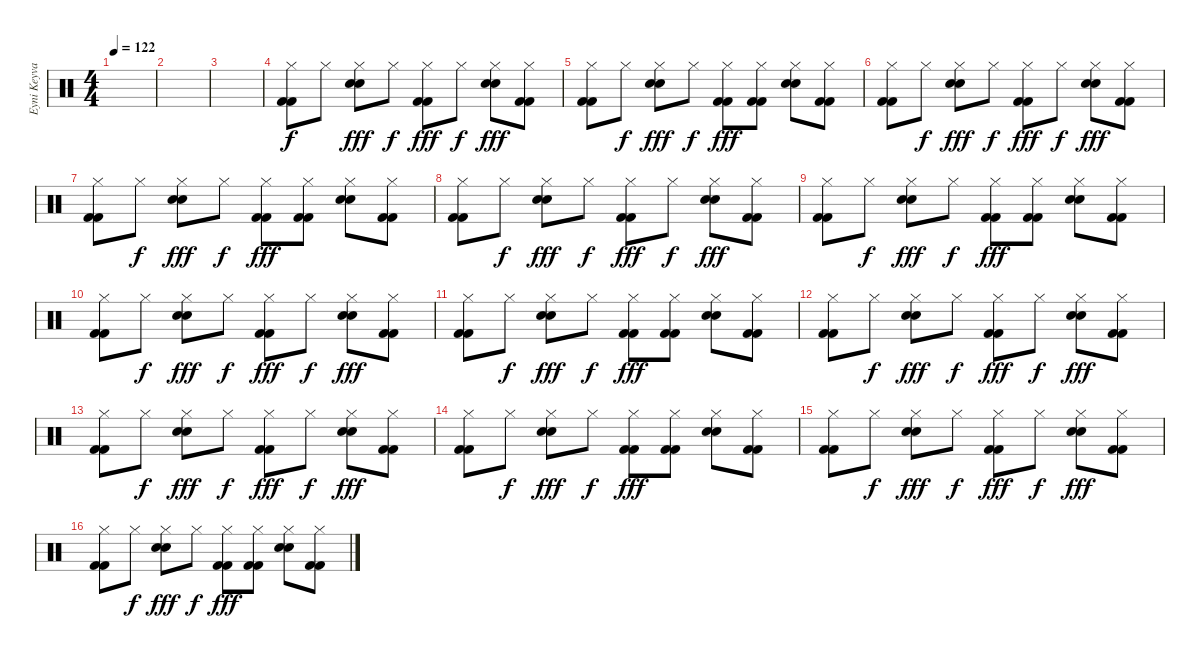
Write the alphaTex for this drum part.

\track ("Eyni Keyvanshokoh" "Eyni Keyva") {instrument percussion}
\staff {score}
\articulation defaults
\ts (4 4)
\tempo 122
\clef neutral
\ks c
|
|
|
("Hi-Hat (closed)" "Kick (hit) 2" "Kick (hit) 2").8 "Hi-Hat (closed)".8{dy f} ("Hi-Hat (closed)" "Electric Snare (hit)" "Electric Snare (hit)").8{dy fff} "Hi-Hat (closed)".8{dy f} ("Hi-Hat (closed)" "Kick (hit) 2" "Kick (hit) 2").8{dy fff} "Hi-Hat (closed)".8{dy f} ("Hi-Hat (closed)" "Electric Snare (hit)" "Electric Snare (hit)").8{dy fff} ("Hi-Hat (closed)" "Kick (hit) 2" "Kick (hit) 2").8 |
("Hi-Hat (closed)" "Kick (hit) 2" "Kick (hit) 2").8 "Hi-Hat (closed)".8{dy f} ("Hi-Hat (closed)" "Electric Snare (hit)" "Electric Snare (hit)").8{dy fff} "Hi-Hat (closed)".8{dy f} ("Hi-Hat (closed)" "Kick (hit) 2" "Kick (hit) 2").8{dy fff} ("Hi-Hat (closed)" "Kick (hit) 2" "Kick (hit) 2").8 ("Hi-Hat (closed)" "Electric Snare (hit)" "Electric Snare (hit)").8 ("Hi-Hat (closed)" "Kick (hit) 2" "Kick (hit) 2").8 |
("Hi-Hat (closed)" "Kick (hit) 2" "Kick (hit) 2").8 "Hi-Hat (closed)".8{dy f} ("Hi-Hat (closed)" "Electric Snare (hit)" "Electric Snare (hit)").8{dy fff} "Hi-Hat (closed)".8{dy f} ("Hi-Hat (closed)" "Kick (hit) 2" "Kick (hit) 2").8{dy fff} "Hi-Hat (closed)".8{dy f} ("Hi-Hat (closed)" "Electric Snare (hit)" "Electric Snare (hit)").8{dy fff} ("Hi-Hat (closed)" "Kick (hit) 2" "Kick (hit) 2").8 |
("Hi-Hat (closed)" "Kick (hit) 2" "Kick (hit) 2").8 "Hi-Hat (closed)".8{dy f} ("Hi-Hat (closed)" "Electric Snare (hit)" "Electric Snare (hit)").8{dy fff} "Hi-Hat (closed)".8{dy f} ("Hi-Hat (closed)" "Kick (hit) 2" "Kick (hit) 2").8{dy fff} ("Hi-Hat (closed)" "Kick (hit) 2" "Kick (hit) 2").8 ("Hi-Hat (closed)" "Electric Snare (hit)" "Electric Snare (hit)").8 ("Hi-Hat (closed)" "Kick (hit) 2" "Kick (hit) 2").8 |
("Hi-Hat (closed)" "Kick (hit) 2" "Kick (hit) 2").8 "Hi-Hat (closed)".8{dy f} ("Hi-Hat (closed)" "Electric Snare (hit)" "Electric Snare (hit)").8{dy fff} "Hi-Hat (closed)".8{dy f} ("Hi-Hat (closed)" "Kick (hit) 2" "Kick (hit) 2").8{dy fff} "Hi-Hat (closed)".8{dy f} ("Hi-Hat (closed)" "Electric Snare (hit)" "Electric Snare (hit)").8{dy fff} ("Hi-Hat (closed)" "Kick (hit) 2" "Kick (hit) 2").8 |
("Hi-Hat (closed)" "Kick (hit) 2" "Kick (hit) 2").8 "Hi-Hat (closed)".8{dy f} ("Hi-Hat (closed)" "Electric Snare (hit)" "Electric Snare (hit)").8{dy fff} "Hi-Hat (closed)".8{dy f} ("Hi-Hat (closed)" "Kick (hit) 2" "Kick (hit) 2").8{dy fff} ("Hi-Hat (closed)" "Kick (hit) 2" "Kick (hit) 2").8 ("Hi-Hat (closed)" "Electric Snare (hit)" "Electric Snare (hit)").8 ("Hi-Hat (closed)" "Kick (hit) 2" "Kick (hit) 2").8 |
("Hi-Hat (closed)" "Kick (hit) 2" "Kick (hit) 2").8 "Hi-Hat (closed)".8{dy f} ("Hi-Hat (closed)" "Electric Snare (hit)" "Electric Snare (hit)").8{dy fff} "Hi-Hat (closed)".8{dy f} ("Hi-Hat (closed)" "Kick (hit) 2" "Kick (hit) 2").8{dy fff} "Hi-Hat (closed)".8{dy f} ("Hi-Hat (closed)" "Electric Snare (hit)" "Electric Snare (hit)").8{dy fff} ("Hi-Hat (closed)" "Kick (hit) 2" "Kick (hit) 2").8 |
("Hi-Hat (closed)" "Kick (hit) 2" "Kick (hit) 2").8 "Hi-Hat (closed)".8{dy f} ("Hi-Hat (closed)" "Electric Snare (hit)" "Electric Snare (hit)").8{dy fff} "Hi-Hat (closed)".8{dy f} ("Hi-Hat (closed)" "Kick (hit) 2" "Kick (hit) 2").8{dy fff} ("Hi-Hat (closed)" "Kick (hit) 2" "Kick (hit) 2").8 ("Hi-Hat (closed)" "Electric Snare (hit)" "Electric Snare (hit)").8 ("Hi-Hat (closed)" "Kick (hit) 2" "Kick (hit) 2").8 |
("Hi-Hat (closed)" "Kick (hit) 2" "Kick (hit) 2").8 "Hi-Hat (closed)".8{dy f} ("Hi-Hat (closed)" "Electric Snare (hit)" "Electric Snare (hit)").8{dy fff} "Hi-Hat (closed)".8{dy f} ("Hi-Hat (closed)" "Kick (hit) 2" "Kick (hit) 2").8{dy fff} "Hi-Hat (closed)".8{dy f} ("Hi-Hat (closed)" "Electric Snare (hit)" "Electric Snare (hit)").8{dy fff} ("Hi-Hat (closed)" "Kick (hit) 2" "Kick (hit) 2").8 |
("Hi-Hat (closed)" "Kick (hit) 2" "Kick (hit) 2").8 "Hi-Hat (closed)".8{dy f} ("Hi-Hat (closed)" "Electric Snare (hit)" "Electric Snare (hit)").8{dy fff} "Hi-Hat (closed)".8{dy f} ("Hi-Hat (closed)" "Kick (hit) 2" "Kick (hit) 2").8{dy fff} "Hi-Hat (closed)".8{dy f} ("Hi-Hat (closed)" "Electric Snare (hit)" "Electric Snare (hit)").8{dy fff} ("Hi-Hat (closed)" "Kick (hit) 2" "Kick (hit) 2").8 |
("Hi-Hat (closed)" "Kick (hit) 2" "Kick (hit) 2").8 "Hi-Hat (closed)".8{dy f} ("Hi-Hat (closed)" "Electric Snare (hit)" "Electric Snare (hit)").8{dy fff} "Hi-Hat (closed)".8{dy f} ("Hi-Hat (closed)" "Kick (hit) 2" "Kick (hit) 2").8{dy fff} ("Hi-Hat (closed)" "Kick (hit) 2" "Kick (hit) 2").8 ("Hi-Hat (closed)" "Electric Snare (hit)" "Electric Snare (hit)").8 ("Hi-Hat (closed)" "Kick (hit) 2" "Kick (hit) 2").8 |
("Hi-Hat (closed)" "Kick (hit) 2" "Kick (hit) 2").8 "Hi-Hat (closed)".8{dy f} ("Hi-Hat (closed)" "Electric Snare (hit)" "Electric Snare (hit)").8{dy fff} "Hi-Hat (closed)".8{dy f} ("Hi-Hat (closed)" "Kick (hit) 2" "Kick (hit) 2").8{dy fff} "Hi-Hat (closed)".8{dy f} ("Hi-Hat (closed)" "Electric Snare (hit)" "Electric Snare (hit)").8{dy fff} ("Hi-Hat (closed)" "Kick (hit) 2" "Kick (hit) 2").8 |
("Hi-Hat (closed)" "Kick (hit) 2" "Kick (hit) 2").8 "Hi-Hat (closed)".8{dy f} ("Hi-Hat (closed)" "Electric Snare (hit)" "Electric Snare (hit)").8{dy fff} "Hi-Hat (closed)".8{dy f} ("Hi-Hat (closed)" "Kick (hit) 2" "Kick (hit) 2").8{dy fff} ("Hi-Hat (closed)" "Kick (hit) 2" "Kick (hit) 2").8 ("Hi-Hat (closed)" "Electric Snare (hit)" "Electric Snare (hit)").8 ("Hi-Hat (closed)" "Kick (hit) 2" "Kick (hit) 2").8
